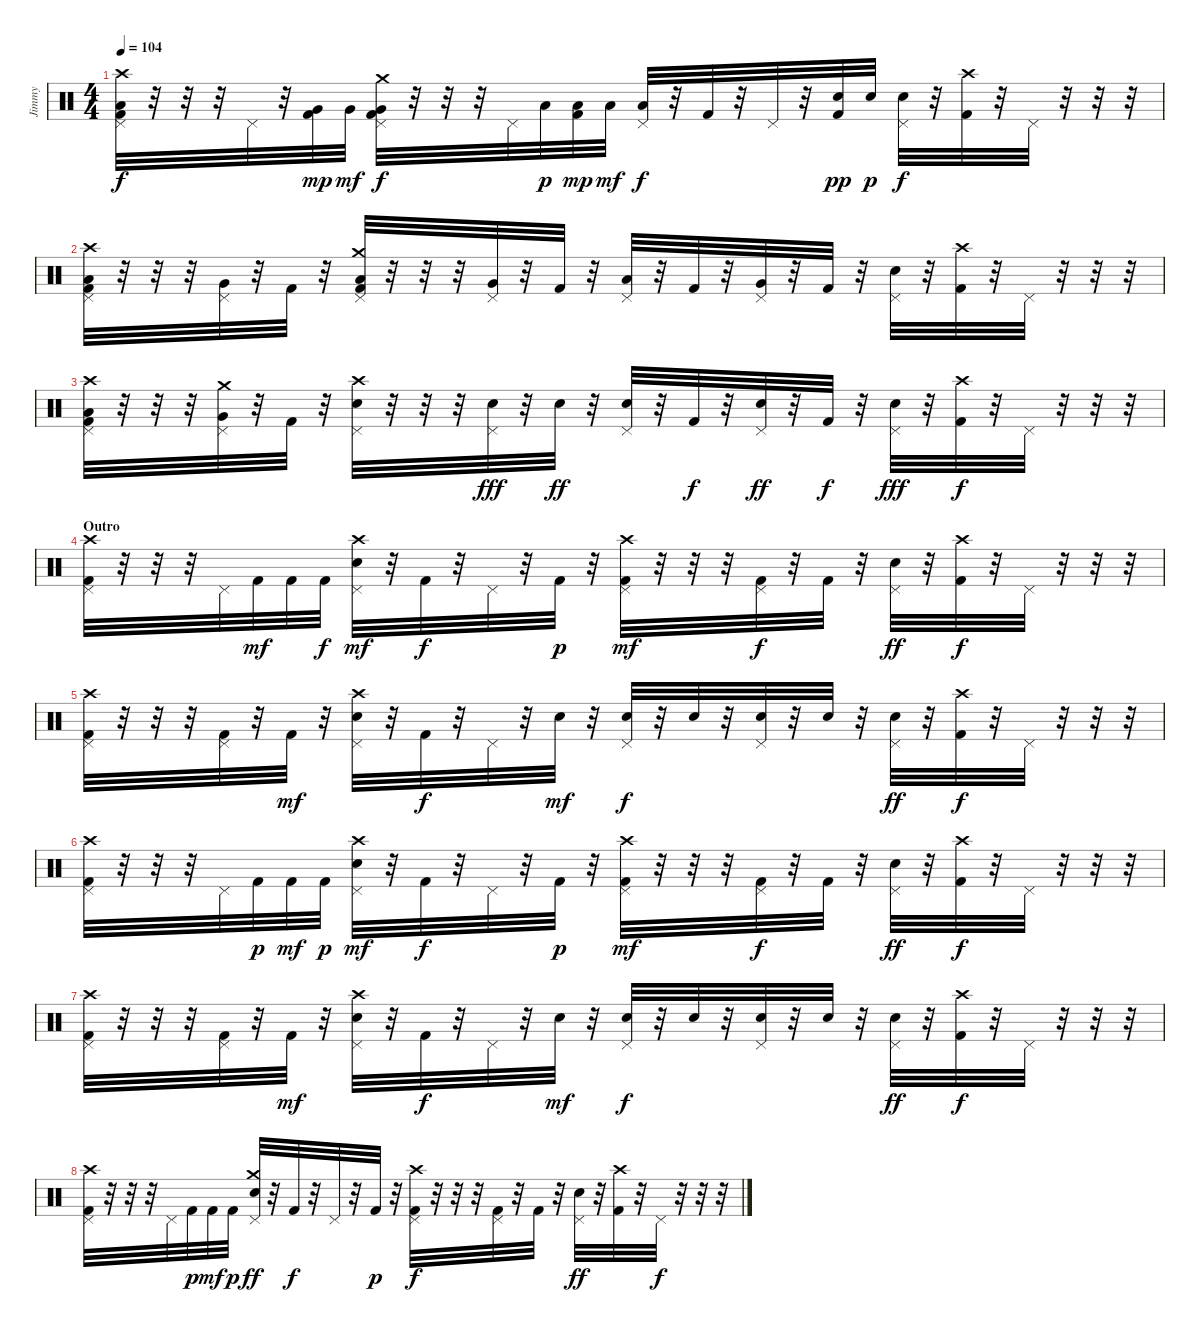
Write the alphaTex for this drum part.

\track ("Jimmy" "Jimmy") {instrument percussion}
\staff {score}
\articulation defaults
\ts (4 4)
\tempo 104
\clef neutral
\ks c
("Crash high (hit)" "Pedal Hi-Hat (hit)" "Low Tom (hit)" "Kick (hit) 2").32{dy f} r.32 r.32 r.32 "Pedal Hi-Hat (hit)".32 r.32 ("Very Low Tom (hit)" "Kick (hit) 2").32{dy mp} "Very Low Tom (hit)".32{dy mf} ("Crash medium (hit)" "Pedal Hi-Hat (hit)" "Very Low Tom (hit)" "Kick (hit) 2").32{dy f} r.32 r.32 r.32 "Pedal Hi-Hat (hit)".32 "Low Floor Tom (hit)".32{dy p} ("Low Floor Tom (hit)" "Kick (hit) 2").32{dy mp} "Low Floor Tom (hit)".32{dy mf} ("Pedal Hi-Hat (hit)" "Low Floor Tom (hit)").32{dy f} r.32 "Kick (hit) 2".32 r.32 "Pedal Hi-Hat (hit)".32 r.32 ("Electric Snare (hit)" "Kick (hit) 2").32{dy pp} "Electric Snare (hit)".32{dy p} ("Pedal Hi-Hat (hit)" "Electric Snare (hit)").32{dy f} r.32 ("Crash high (hit)" "Kick (hit) 2").32 r.32 "Pedal Hi-Hat (hit)".32 r.32 r.32 r.32 |
("Crash high (hit)" "Pedal Hi-Hat (hit)" "Low Tom (hit)" "Kick (hit) 2").32 r.32 r.32 r.32 ("Pedal Hi-Hat (hit)" "Very Low Tom (hit)").32 r.32 "Kick (hit) 2".32 r.32 ("Crash medium (hit)" "Pedal Hi-Hat (hit)" "Low Floor Tom (hit)" "Kick (hit) 2").32 r.32 r.32 r.32 ("Pedal Hi-Hat (hit)" "Very Low Tom (hit)").32 r.32 "Kick (hit) 2".32 r.32 ("Pedal Hi-Hat (hit)" "Low Tom (hit)").32 r.32 "Kick (hit) 2".32 r.32 ("Pedal Hi-Hat (hit)" "Very Low Tom (hit)").32 r.32 "Kick (hit) 2".32 r.32 ("Pedal Hi-Hat (hit)" "Electric Snare (hit)").32 r.32 ("Crash high (hit)" "Kick (hit) 2").32 r.32 "Pedal Hi-Hat (hit)".32 r.32 r.32 r.32 |
("Crash high (hit)" "Pedal Hi-Hat (hit)" "Low Tom (hit)" "Kick (hit) 2").32 r.32 r.32 r.32 ("Crash medium (hit)" "Pedal Hi-Hat (hit)" "Very Low Tom (hit)").32 r.32 "Kick (hit) 2".32 r.32 ("Crash high (hit)" "Pedal Hi-Hat (hit)" "Electric Snare (hit)").32 r.32 r.32 r.32 ("Pedal Hi-Hat (hit)" "Electric Snare (hit)").32{dy fff} r.32 "Electric Snare (hit)".32{dy ff} r.32 ("Pedal Hi-Hat (hit)" "Electric Snare (hit)").32 r.32 "Kick (hit) 2".32{dy f} r.32 ("Pedal Hi-Hat (hit)" "Electric Snare (hit)").32{dy ff} r.32 "Kick (hit) 2".32{dy f} r.32 ("Pedal Hi-Hat (hit)" "Electric Snare (hit)").32{dy fff} r.32 ("Crash high (hit)" "Kick (hit) 2").32{dy f} r.32 "Pedal Hi-Hat (hit)".32 r.32 r.32 r.32 |
\section ("" "Outro")
("Crash high (hit)" "Pedal Hi-Hat (hit)" "Kick (hit) 2").32 r.32 r.32 r.32 "Pedal Hi-Hat (hit)".32 "Kick (hit) 2".32{dy mf} "Kick (hit) 2".32 "Kick (hit) 2".32{dy f} ("Crash high (hit)" "Pedal Hi-Hat (hit)" "Electric Snare (hit)").32{dy mf} r.32 "Kick (hit) 2".32{dy f} r.32 "Pedal Hi-Hat (hit)".32 r.32 "Kick (hit) 2".32{dy p} r.32 ("Crash high (hit)" "Pedal Hi-Hat (hit)" "Kick (hit) 2").32{dy mf} r.32 r.32 r.32 ("Pedal Hi-Hat (hit)" "Kick (hit) 2").32{dy f} r.32 "Kick (hit) 2".32 r.32 ("Pedal Hi-Hat (hit)" "Electric Snare (hit)").32{dy ff} r.32 ("Crash high (hit)" "Kick (hit) 2").32{dy f} r.32 "Pedal Hi-Hat (hit)".32 r.32 r.32 r.32 |
("Crash high (hit)" "Pedal Hi-Hat (hit)" "Kick (hit) 2").32 r.32 r.32 r.32 ("Pedal Hi-Hat (hit)" "Kick (hit) 2").32 r.32 "Kick (hit) 2".32{dy mf} r.32 ("Crash high (hit)" "Pedal Hi-Hat (hit)" "Electric Snare (hit)").32 r.32 "Kick (hit) 2".32{dy f} r.32 "Pedal Hi-Hat (hit)".32 r.32 "Electric Snare (hit)".32{dy mf} r.32 ("Pedal Hi-Hat (hit)" "Electric Snare (hit)").32{dy f} r.32 "Electric Snare (hit)".32 r.32 ("Pedal Hi-Hat (hit)" "Electric Snare (hit)").32 r.32 "Electric Snare (hit)".32 r.32 ("Pedal Hi-Hat (hit)" "Electric Snare (hit)").32{dy ff} r.32 ("Crash high (hit)" "Kick (hit) 2").32{dy f} r.32 "Pedal Hi-Hat (hit)".32 r.32 r.32 r.32 |
("Crash high (hit)" "Pedal Hi-Hat (hit)" "Kick (hit) 2").32 r.32 r.32 r.32 "Pedal Hi-Hat (hit)".32 "Kick (hit) 2".32{dy p} "Kick (hit) 2".32{dy mf} "Kick (hit) 2".32{dy p} ("Crash high (hit)" "Pedal Hi-Hat (hit)" "Electric Snare (hit)").32{dy mf} r.32 "Kick (hit) 2".32{dy f} r.32 "Pedal Hi-Hat (hit)".32 r.32 "Kick (hit) 2".32{dy p} r.32 ("Crash high (hit)" "Pedal Hi-Hat (hit)" "Kick (hit) 2").32{dy mf} r.32 r.32 r.32 ("Pedal Hi-Hat (hit)" "Kick (hit) 2").32{dy f} r.32 "Kick (hit) 2".32 r.32 ("Pedal Hi-Hat (hit)" "Electric Snare (hit)").32{dy ff} r.32 ("Crash high (hit)" "Kick (hit) 2").32{dy f} r.32 "Pedal Hi-Hat (hit)".32 r.32 r.32 r.32 |
("Crash high (hit)" "Pedal Hi-Hat (hit)" "Kick (hit) 2").32 r.32 r.32 r.32 ("Pedal Hi-Hat (hit)" "Kick (hit) 2").32 r.32 "Kick (hit) 2".32{dy mf} r.32 ("Crash high (hit)" "Pedal Hi-Hat (hit)" "Electric Snare (hit)").32 r.32 "Kick (hit) 2".32{dy f} r.32 "Pedal Hi-Hat (hit)".32 r.32 "Electric Snare (hit)".32{dy mf} r.32 ("Pedal Hi-Hat (hit)" "Electric Snare (hit)").32{dy f} r.32 "Electric Snare (hit)".32 r.32 ("Pedal Hi-Hat (hit)" "Electric Snare (hit)").32 r.32 "Electric Snare (hit)".32 r.32 ("Pedal Hi-Hat (hit)" "Electric Snare (hit)").32{dy ff} r.32 ("Crash high (hit)" "Kick (hit) 2").32{dy f} r.32 "Pedal Hi-Hat (hit)".32 r.32 r.32 r.32 |
("Crash high (hit)" "Pedal Hi-Hat (hit)" "Kick (hit) 2").32 r.32 r.32 r.32 "Pedal Hi-Hat (hit)".32 "Kick (hit) 2".32{dy p} "Kick (hit) 2".32{dy mf} "Kick (hit) 2".32{dy p} ("Crash medium (hit)" "Pedal Hi-Hat (hit)" "Electric Snare (hit)").32{dy ff} r.32 "Kick (hit) 2".32{dy f} r.32 "Pedal Hi-Hat (hit)".32 r.32 "Kick (hit) 2".32{dy p} r.32 ("Crash high (hit)" "Pedal Hi-Hat (hit)" "Kick (hit) 2").32{dy f} r.32 r.32 r.32 ("Pedal Hi-Hat (hit)" "Kick (hit) 2").32 r.32 "Kick (hit) 2".32 r.32 ("Pedal Hi-Hat (hit)" "Electric Snare (hit)").32{dy ff} r.32 ("Crash high (hit)" "Kick (hit) 2").32 r.32 "Pedal Hi-Hat (hit)".32{dy f} r.32 r.32 r.32
